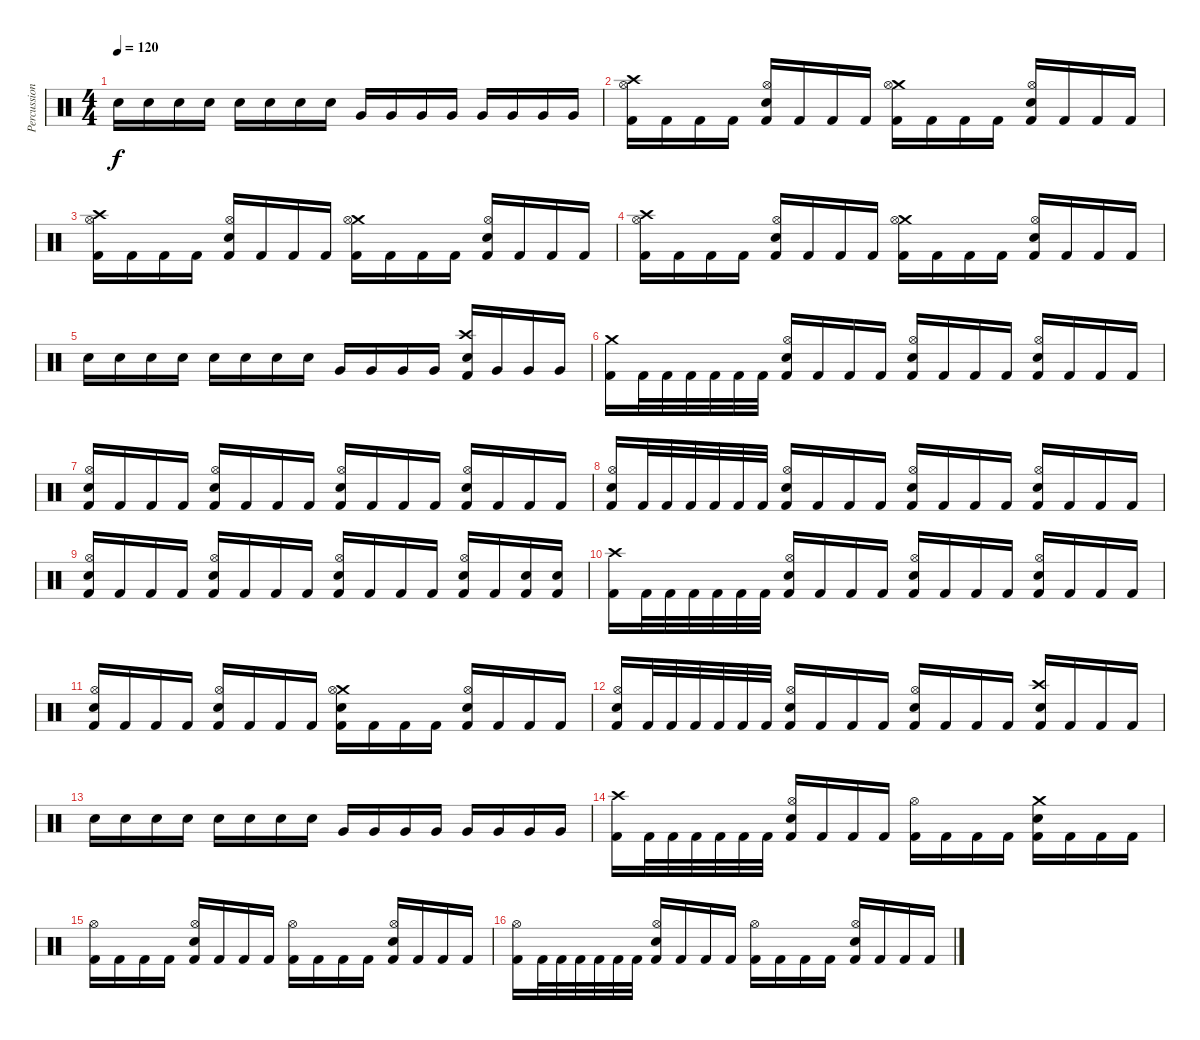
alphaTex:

\track ("Percussion" "Percussion") {instrument percussion}
\staff {score}
\articulation defaults
\ts (4 4)
\tempo 120
\clef neutral
\ks c "Snare (hit) 2".16{dy f} "Snare (hit) 2".16 "Snare (hit) 2".16 "Snare (hit) 2".16 "Snare (hit) 2".16 "Snare (hit) 2".16 "Snare (hit) 2".16 "Snare (hit) 2".16 "Very Low Tom (hit)".16 "Very Low Tom (hit)".16 "Very Low Tom (hit)".16 "Very Low Tom (hit)".16 "Very Low Tom (hit)".16 "Very Low Tom (hit)".16 "Very Low Tom (hit)".16 "Very Low Tom (hit)".16
|
("Crash high (hit)" "Hi-Hat (open)" "Kick (hit) 2").16 "Kick (hit) 2".16 "Kick (hit) 2".16 "Kick (hit) 2".16 ("Hi-Hat (open)" "Snare (hit) 2" "Kick (hit) 2").16 "Kick (hit) 2".16 "Kick (hit) 2".16 "Kick (hit) 2".16 ("Crash medium (hit)" "Hi-Hat (open)" "Kick (hit) 2").16 "Kick (hit) 2".16 "Kick (hit) 2".16 "Kick (hit) 2".16 ("Hi-Hat (open)" "Snare (hit) 2" "Kick (hit) 2").16 "Kick (hit) 2".16 "Kick (hit) 2".16 "Kick (hit) 2".16 |
("Crash high (hit)" "Hi-Hat (open)" "Kick (hit) 2").16 "Kick (hit) 2".16 "Kick (hit) 2".16 "Kick (hit) 2".16 ("Hi-Hat (open)" "Snare (hit) 2" "Kick (hit) 2").16 "Kick (hit) 2".16 "Kick (hit) 2".16 "Kick (hit) 2".16 ("Crash medium (hit)" "Hi-Hat (open)" "Kick (hit) 2").16 "Kick (hit) 2".16 "Kick (hit) 2".16 "Kick (hit) 2".16 ("Hi-Hat (open)" "Snare (hit) 2" "Kick (hit) 2").16 "Kick (hit) 2".16 "Kick (hit) 2".16 "Kick (hit) 2".16 |
("Crash high (hit)" "Hi-Hat (open)" "Kick (hit) 2").16 "Kick (hit) 2".16 "Kick (hit) 2".16 "Kick (hit) 2".16 ("Hi-Hat (open)" "Snare (hit) 2" "Kick (hit) 2").16 "Kick (hit) 2".16 "Kick (hit) 2".16 "Kick (hit) 2".16 ("Crash medium (hit)" "Hi-Hat (open)" "Kick (hit) 2").16 "Kick (hit) 2".16 "Kick (hit) 2".16 "Kick (hit) 2".16 ("Hi-Hat (open)" "Snare (hit) 2" "Kick (hit) 2").16 "Kick (hit) 2".16 "Kick (hit) 2".16 "Kick (hit) 2".16 |
"Snare (hit) 2".16 "Snare (hit) 2".16 "Snare (hit) 2".16 "Snare (hit) 2".16 "Snare (hit) 2".16 "Snare (hit) 2".16 "Snare (hit) 2".16 "Snare (hit) 2".16 "Very Low Tom (hit)".16 "Very Low Tom (hit)".16 "Very Low Tom (hit)".16 "Very Low Tom (hit)".16 ("Crash high (hit)" "Snare (hit) 2" "Kick (hit) 2").16 "Very Low Tom (hit)".16 "Very Low Tom (hit)".16 "Very Low Tom (hit)".16 |
("Crash medium (hit)" "Kick (hit) 2").16 "Kick (hit) 2".32 "Kick (hit) 2".32 "Kick (hit) 2".32 "Kick (hit) 2".32 "Kick (hit) 2".32 "Kick (hit) 2".32 ("Hi-Hat (open)" "Snare (hit) 2" "Kick (hit) 2").16 "Kick (hit) 2".16 "Kick (hit) 2".16 "Kick (hit) 2".16 ("Hi-Hat (open)" "Snare (hit) 2" "Kick (hit) 2").16 "Kick (hit) 2".16 "Kick (hit) 2".16 "Kick (hit) 2".16 ("Hi-Hat (open)" "Snare (hit) 2" "Kick (hit) 2").16 "Kick (hit) 2".16 "Kick (hit) 2".16 "Kick (hit) 2".16 |
("Hi-Hat (open)" "Snare (hit) 2" "Kick (hit) 2").16 "Kick (hit) 2".16 "Kick (hit) 2".16 "Kick (hit) 2".16 ("Hi-Hat (open)" "Snare (hit) 2" "Kick (hit) 2").16 "Kick (hit) 2".16 "Kick (hit) 2".16 "Kick (hit) 2".16 ("Hi-Hat (open)" "Snare (hit) 2" "Kick (hit) 2").16 "Kick (hit) 2".16 "Kick (hit) 2".16 "Kick (hit) 2".16 ("Hi-Hat (open)" "Snare (hit) 2" "Kick (hit) 2").16 "Kick (hit) 2".16 "Kick (hit) 2".16 "Kick (hit) 2".16 |
("Hi-Hat (open)" "Snare (hit) 2" "Kick (hit) 2").16 "Kick (hit) 2".32 "Kick (hit) 2".32 "Kick (hit) 2".32 "Kick (hit) 2".32 "Kick (hit) 2".32 "Kick (hit) 2".32 ("Hi-Hat (open)" "Snare (hit) 2" "Kick (hit) 2").16 "Kick (hit) 2".16 "Kick (hit) 2".16 "Kick (hit) 2".16 ("Hi-Hat (open)" "Snare (hit) 2" "Kick (hit) 2").16 "Kick (hit) 2".16 "Kick (hit) 2".16 "Kick (hit) 2".16 ("Hi-Hat (open)" "Snare (hit) 2" "Kick (hit) 2").16 "Kick (hit) 2".16 "Kick (hit) 2".16 "Kick (hit) 2".16 |
("Hi-Hat (open)" "Snare (hit) 2" "Kick (hit) 2").16 "Kick (hit) 2".16 "Kick (hit) 2".16 "Kick (hit) 2".16 ("Hi-Hat (open)" "Snare (hit) 2" "Kick (hit) 2").16 "Kick (hit) 2".16 "Kick (hit) 2".16 "Kick (hit) 2".16 ("Hi-Hat (open)" "Snare (hit) 2" "Kick (hit) 2").16 "Kick (hit) 2".16 "Kick (hit) 2".16 "Kick (hit) 2".16 ("Hi-Hat (open)" "Snare (hit) 2" "Kick (hit) 2").16 "Kick (hit) 2".16 ("Snare (hit) 2" "Kick (hit) 2").16 ("Snare (hit) 2" "Kick (hit) 2").16 |
("Crash high (hit)" "Kick (hit) 2").16 "Kick (hit) 2".32 "Kick (hit) 2".32 "Kick (hit) 2".32 "Kick (hit) 2".32 "Kick (hit) 2".32 "Kick (hit) 2".32 ("Hi-Hat (open)" "Snare (hit) 2" "Kick (hit) 2").16 "Kick (hit) 2".16 "Kick (hit) 2".16 "Kick (hit) 2".16 ("Hi-Hat (open)" "Snare (hit) 2" "Kick (hit) 2").16 "Kick (hit) 2".16 "Kick (hit) 2".16 "Kick (hit) 2".16 ("Hi-Hat (open)" "Snare (hit) 2" "Kick (hit) 2").16 "Kick (hit) 2".16 "Kick (hit) 2".16 "Kick (hit) 2".16 |
("Hi-Hat (open)" "Snare (hit) 2" "Kick (hit) 2").16 "Kick (hit) 2".16 "Kick (hit) 2".16 "Kick (hit) 2".16 ("Hi-Hat (open)" "Snare (hit) 2" "Kick (hit) 2").16 "Kick (hit) 2".16 "Kick (hit) 2".16 "Kick (hit) 2".16 ("Crash medium (hit)" "Snare (hit) 2" "Hi-Hat (open)" "Kick (hit) 2").16 "Kick (hit) 2".16 "Kick (hit) 2".16 "Kick (hit) 2".16 ("Hi-Hat (open)" "Snare (hit) 2" "Kick (hit) 2").16 "Kick (hit) 2".16 "Kick (hit) 2".16 "Kick (hit) 2".16 |
("Hi-Hat (open)" "Snare (hit) 2" "Kick (hit) 2").16 "Kick (hit) 2".32 "Kick (hit) 2".32 "Kick (hit) 2".32 "Kick (hit) 2".32 "Kick (hit) 2".32 "Kick (hit) 2".32 ("Hi-Hat (open)" "Snare (hit) 2" "Kick (hit) 2").16 "Kick (hit) 2".16 "Kick (hit) 2".16 "Kick (hit) 2".16 ("Hi-Hat (open)" "Snare (hit) 2" "Kick (hit) 2").16 "Kick (hit) 2".16 "Kick (hit) 2".16 "Kick (hit) 2".16 ("Crash high (hit)" "Snare (hit) 2" "Kick (hit) 2").16 "Kick (hit) 2".16 "Kick (hit) 2".16 "Kick (hit) 2".16 |
"Snare (hit) 2".16 "Snare (hit) 2".16 "Snare (hit) 2".16 "Snare (hit) 2".16 "Snare (hit) 2".16 "Snare (hit) 2".16 "Snare (hit) 2".16 "Snare (hit) 2".16 "Very Low Tom (hit)".16 "Very Low Tom (hit)".16 "Very Low Tom (hit)".16 "Very Low Tom (hit)".16 "Very Low Tom (hit)".16 "Very Low Tom (hit)".16 "Very Low Tom (hit)".16 "Very Low Tom (hit)".16 |
("Crash high (hit)" "Kick (hit) 2").16 "Kick (hit) 2".32 "Kick (hit) 2".32 "Kick (hit) 2".32 "Kick (hit) 2".32 "Kick (hit) 2".32 "Kick (hit) 2".32 ("Hi-Hat (open)" "Snare (hit) 2" "Kick (hit) 2").16 "Kick (hit) 2".16 "Kick (hit) 2".16 "Kick (hit) 2".16 ("Hi-Hat (open)" "Kick (hit) 2").16 "Kick (hit) 2".16 "Kick (hit) 2".16 "Kick (hit) 2".16 ("Crash medium (hit)" "Snare (hit) 2" "Kick (hit) 2").16 "Kick (hit) 2".16 "Kick (hit) 2".16 "Kick (hit) 2".16 |
("Hi-Hat (open)" "Kick (hit) 2").16 "Kick (hit) 2".16 "Kick (hit) 2".16 "Kick (hit) 2".16 ("Hi-Hat (open)" "Snare (hit) 2" "Kick (hit) 2").16 "Kick (hit) 2".16 "Kick (hit) 2".16 "Kick (hit) 2".16 ("Hi-Hat (open)" "Kick (hit) 2").16 "Kick (hit) 2".16 "Kick (hit) 2".16 "Kick (hit) 2".16 ("Hi-Hat (open)" "Snare (hit) 2" "Kick (hit) 2").16 "Kick (hit) 2".16 "Kick (hit) 2".16 "Kick (hit) 2".16 |
("Hi-Hat (open)" "Kick (hit) 2").16 "Kick (hit) 2".32 "Kick (hit) 2".32 "Kick (hit) 2".32 "Kick (hit) 2".32 "Kick (hit) 2".32 "Kick (hit) 2".32 ("Hi-Hat (open)" "Snare (hit) 2" "Kick (hit) 2").16 "Kick (hit) 2".16 "Kick (hit) 2".16 "Kick (hit) 2".16 ("Hi-Hat (open)" "Kick (hit) 2").16 "Kick (hit) 2".16 "Kick (hit) 2".16 "Kick (hit) 2".16 ("Hi-Hat (open)" "Snare (hit) 2" "Kick (hit) 2").16 "Kick (hit) 2".16 "Kick (hit) 2".16 "Kick (hit) 2".16
